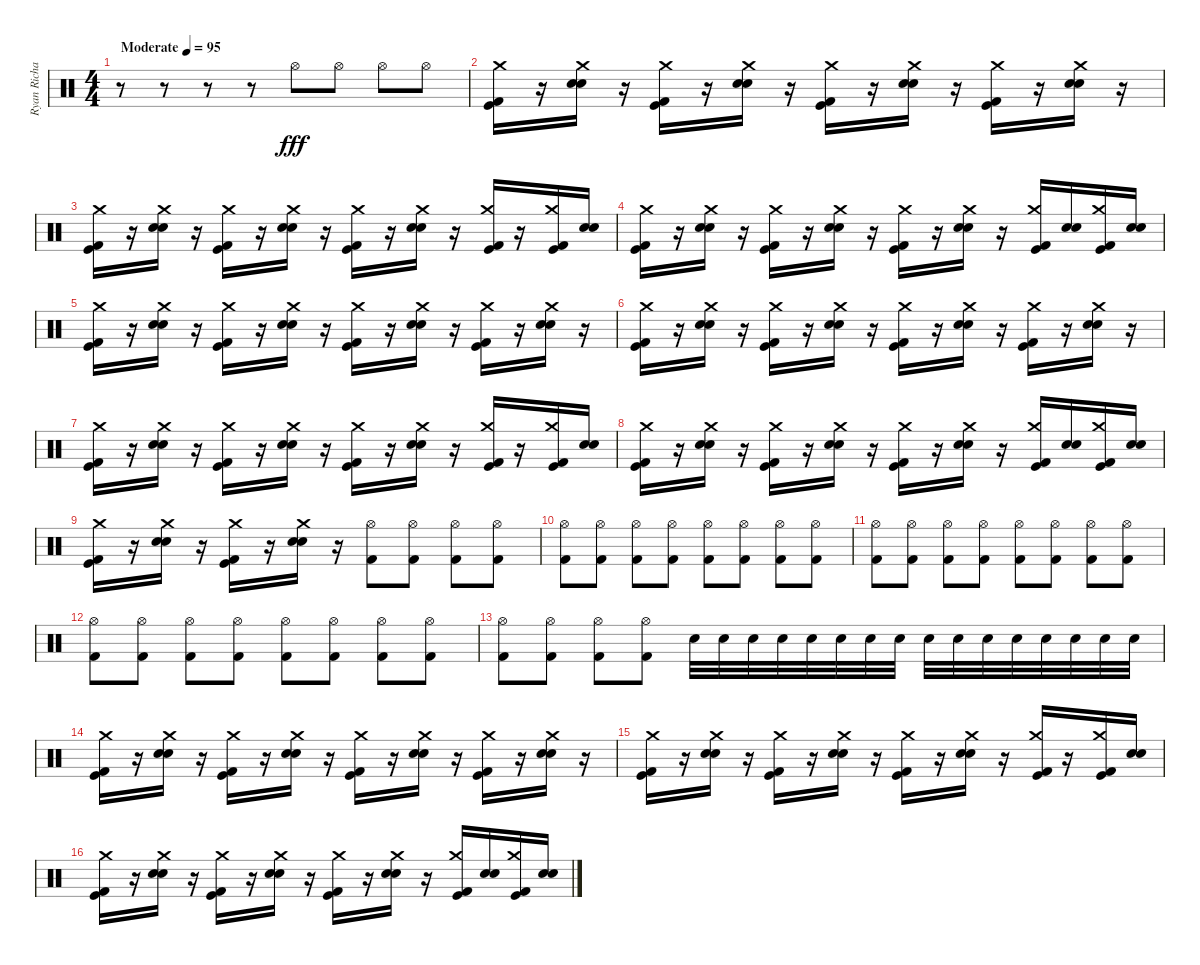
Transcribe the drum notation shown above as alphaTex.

\track ("Ryan Richards" "Ryan Richa") {instrument percussion}
\staff {score}
\articulation defaults
\ts (4 4)
\tempo (95 "Moderate")
\clef neutral
\ks c
r.8{dy fff} r.8 r.8 r.8 "Hi-Hat (open)".8 "Hi-Hat (open)".8 "Hi-Hat (open)".8 "Hi-Hat (open)".8 |
("Kick (hit)" "Crash medium (hit)" "Kick (hit) 2").16 r.16 ("Crash medium (hit)" "Electric Snare (hit)" "Snare (hit) 2").16 r.16 ("Kick (hit)" "Crash medium (hit)" "Kick (hit) 2").16 r.16 ("Crash medium (hit)" "Electric Snare (hit)" "Snare (hit) 2").16 r.16 ("Kick (hit)" "Crash medium (hit)" "Kick (hit) 2").16 r.16 ("Crash medium (hit)" "Electric Snare (hit)" "Snare (hit) 2").16 r.16 ("Kick (hit)" "Crash medium (hit)" "Kick (hit) 2").16 r.16 ("Crash medium (hit)" "Electric Snare (hit)" "Snare (hit) 2").16 r.16 |
("Kick (hit)" "Crash medium (hit)" "Kick (hit) 2").16 r.16 ("Crash medium (hit)" "Electric Snare (hit)" "Snare (hit) 2").16 r.16 ("Kick (hit)" "Crash medium (hit)" "Kick (hit) 2").16 r.16 ("Crash medium (hit)" "Electric Snare (hit)" "Snare (hit) 2").16 r.16 ("Kick (hit)" "Crash medium (hit)" "Kick (hit) 2").16 r.16 ("Crash medium (hit)" "Electric Snare (hit)" "Snare (hit) 2").16 r.16 ("Kick (hit)" "Crash medium (hit)" "Kick (hit) 2").16 r.16 ("Kick (hit)" "Crash medium (hit)" "Kick (hit) 2").16 ("Electric Snare (hit)" "Snare (hit) 2").16 |
("Kick (hit)" "Crash medium (hit)" "Kick (hit) 2").16 r.16 ("Crash medium (hit)" "Electric Snare (hit)" "Snare (hit) 2").16 r.16 ("Kick (hit)" "Crash medium (hit)" "Kick (hit) 2").16 r.16 ("Crash medium (hit)" "Electric Snare (hit)" "Snare (hit) 2").16 r.16 ("Kick (hit)" "Crash medium (hit)" "Kick (hit) 2").16 r.16 ("Crash medium (hit)" "Electric Snare (hit)" "Snare (hit) 2").16 r.16 ("Kick (hit)" "Crash medium (hit)" "Kick (hit) 2").16 ("Electric Snare (hit)" "Snare (hit) 2").16 ("Kick (hit)" "Crash medium (hit)" "Kick (hit) 2").16 ("Electric Snare (hit)" "Snare (hit) 2").16 |
("Kick (hit)" "Crash medium (hit)" "Kick (hit) 2").16 r.16 ("Crash medium (hit)" "Electric Snare (hit)" "Snare (hit) 2").16 r.16 ("Kick (hit)" "Crash medium (hit)" "Kick (hit) 2").16 r.16 ("Crash medium (hit)" "Electric Snare (hit)" "Snare (hit) 2").16 r.16 ("Kick (hit)" "Crash medium (hit)" "Kick (hit) 2").16 r.16 ("Crash medium (hit)" "Electric Snare (hit)" "Snare (hit) 2").16 r.16 ("Kick (hit)" "Crash medium (hit)" "Kick (hit) 2").16 r.16 ("Crash medium (hit)" "Electric Snare (hit)" "Snare (hit) 2").16 r.16 |
("Kick (hit)" "Crash medium (hit)" "Kick (hit) 2").16 r.16 ("Crash medium (hit)" "Electric Snare (hit)" "Snare (hit) 2").16 r.16 ("Kick (hit)" "Crash medium (hit)" "Kick (hit) 2").16 r.16 ("Crash medium (hit)" "Electric Snare (hit)" "Snare (hit) 2").16 r.16 ("Kick (hit)" "Crash medium (hit)" "Kick (hit) 2").16 r.16 ("Crash medium (hit)" "Electric Snare (hit)" "Snare (hit) 2").16 r.16 ("Kick (hit)" "Crash medium (hit)" "Kick (hit) 2").16 r.16 ("Crash medium (hit)" "Electric Snare (hit)" "Snare (hit) 2").16 r.16 |
("Kick (hit)" "Crash medium (hit)" "Kick (hit) 2").16 r.16 ("Crash medium (hit)" "Electric Snare (hit)" "Snare (hit) 2").16 r.16 ("Kick (hit)" "Crash medium (hit)" "Kick (hit) 2").16 r.16 ("Crash medium (hit)" "Electric Snare (hit)" "Snare (hit) 2").16 r.16 ("Kick (hit)" "Crash medium (hit)" "Kick (hit) 2").16 r.16 ("Crash medium (hit)" "Electric Snare (hit)" "Snare (hit) 2").16 r.16 ("Kick (hit)" "Crash medium (hit)" "Kick (hit) 2").16 r.16 ("Kick (hit)" "Crash medium (hit)" "Kick (hit) 2").16 ("Electric Snare (hit)" "Snare (hit) 2").16 |
("Kick (hit)" "Crash medium (hit)" "Kick (hit) 2").16 r.16 ("Crash medium (hit)" "Electric Snare (hit)" "Snare (hit) 2").16 r.16 ("Kick (hit)" "Crash medium (hit)" "Kick (hit) 2").16 r.16 ("Crash medium (hit)" "Electric Snare (hit)" "Snare (hit) 2").16 r.16 ("Kick (hit)" "Crash medium (hit)" "Kick (hit) 2").16 r.16 ("Crash medium (hit)" "Electric Snare (hit)" "Snare (hit) 2").16 r.16 ("Kick (hit)" "Crash medium (hit)" "Kick (hit) 2").16 ("Electric Snare (hit)" "Snare (hit) 2").16 ("Kick (hit)" "Crash medium (hit)" "Kick (hit) 2").16 ("Electric Snare (hit)" "Snare (hit) 2").16 |
("Kick (hit)" "Crash medium (hit)" "Kick (hit) 2").16 r.16 ("Crash medium (hit)" "Electric Snare (hit)" "Snare (hit) 2").16 r.16 ("Kick (hit)" "Crash medium (hit)" "Kick (hit) 2").16 r.16 ("Crash medium (hit)" "Electric Snare (hit)" "Snare (hit) 2").16 r.16 ("Hi-Hat (open)" "Kick (hit) 2").8 ("Hi-Hat (open)" "Kick (hit) 2").8 ("Hi-Hat (open)" "Kick (hit) 2").8 ("Hi-Hat (open)" "Kick (hit) 2").8 |
("Hi-Hat (open)" "Kick (hit) 2").8 ("Hi-Hat (open)" "Kick (hit) 2").8 ("Hi-Hat (open)" "Kick (hit) 2").8 ("Hi-Hat (open)" "Kick (hit) 2").8 ("Hi-Hat (open)" "Kick (hit) 2").8 ("Hi-Hat (open)" "Kick (hit) 2").8 ("Hi-Hat (open)" "Kick (hit) 2").8 ("Hi-Hat (open)" "Kick (hit) 2").8 |
("Hi-Hat (open)" "Kick (hit) 2").8 ("Hi-Hat (open)" "Kick (hit) 2").8 ("Hi-Hat (open)" "Kick (hit) 2").8 ("Hi-Hat (open)" "Kick (hit) 2").8 ("Hi-Hat (open)" "Kick (hit) 2").8 ("Hi-Hat (open)" "Kick (hit) 2").8 ("Hi-Hat (open)" "Kick (hit) 2").8 ("Hi-Hat (open)" "Kick (hit) 2").8 |
("Hi-Hat (open)" "Kick (hit) 2").8 ("Hi-Hat (open)" "Kick (hit) 2").8 ("Hi-Hat (open)" "Kick (hit) 2").8 ("Hi-Hat (open)" "Kick (hit) 2").8 ("Hi-Hat (open)" "Kick (hit) 2").8 ("Hi-Hat (open)" "Kick (hit) 2").8 ("Hi-Hat (open)" "Kick (hit) 2").8 ("Hi-Hat (open)" "Kick (hit) 2").8 |
("Hi-Hat (open)" "Kick (hit) 2").8 ("Hi-Hat (open)" "Kick (hit) 2").8 ("Hi-Hat (open)" "Kick (hit) 2").8 ("Hi-Hat (open)" "Kick (hit) 2").8 "Electric Snare (hit)".32 "Snare (hit) 2".32 "Electric Snare (hit)".32 "Snare (hit) 2".32 "Electric Snare (hit)".32 "Snare (hit) 2".32 "Electric Snare (hit)".32 "Snare (hit) 2".32 "Electric Snare (hit)".32 "Snare (hit) 2".32 "Electric Snare (hit)".32 "Snare (hit) 2".32 "Electric Snare (hit)".32 "Snare (hit) 2".32 "Electric Snare (hit)".32 "Snare (hit) 2".32 |
("Kick (hit)" "Crash medium (hit)" "Kick (hit) 2").16 r.16 ("Crash medium (hit)" "Electric Snare (hit)" "Snare (hit) 2").16 r.16 ("Kick (hit)" "Crash medium (hit)" "Kick (hit) 2").16 r.16 ("Crash medium (hit)" "Electric Snare (hit)" "Snare (hit) 2").16 r.16 ("Kick (hit)" "Crash medium (hit)" "Kick (hit) 2").16 r.16 ("Crash medium (hit)" "Electric Snare (hit)" "Snare (hit) 2").16 r.16 ("Kick (hit)" "Crash medium (hit)" "Kick (hit) 2").16 r.16 ("Crash medium (hit)" "Electric Snare (hit)" "Snare (hit) 2").16 r.16 |
("Kick (hit)" "Crash medium (hit)" "Kick (hit) 2").16 r.16 ("Crash medium (hit)" "Electric Snare (hit)" "Snare (hit) 2").16 r.16 ("Kick (hit)" "Crash medium (hit)" "Kick (hit) 2").16 r.16 ("Crash medium (hit)" "Electric Snare (hit)" "Snare (hit) 2").16 r.16 ("Kick (hit)" "Crash medium (hit)" "Kick (hit) 2").16 r.16 ("Crash medium (hit)" "Electric Snare (hit)" "Snare (hit) 2").16 r.16 ("Kick (hit)" "Crash medium (hit)" "Kick (hit) 2").16 r.16 ("Kick (hit)" "Crash medium (hit)" "Kick (hit) 2").16 ("Electric Snare (hit)" "Snare (hit) 2").16 |
("Kick (hit)" "Crash medium (hit)" "Kick (hit) 2").16 r.16 ("Crash medium (hit)" "Electric Snare (hit)" "Snare (hit) 2").16 r.16 ("Kick (hit)" "Crash medium (hit)" "Kick (hit) 2").16 r.16 ("Crash medium (hit)" "Electric Snare (hit)" "Snare (hit) 2").16 r.16 ("Kick (hit)" "Crash medium (hit)" "Kick (hit) 2").16 r.16 ("Crash medium (hit)" "Electric Snare (hit)" "Snare (hit) 2").16 r.16 ("Kick (hit)" "Crash medium (hit)" "Kick (hit) 2").16 ("Electric Snare (hit)" "Snare (hit) 2").16 ("Kick (hit)" "Crash medium (hit)" "Kick (hit) 2").16 ("Electric Snare (hit)" "Snare (hit) 2").16
